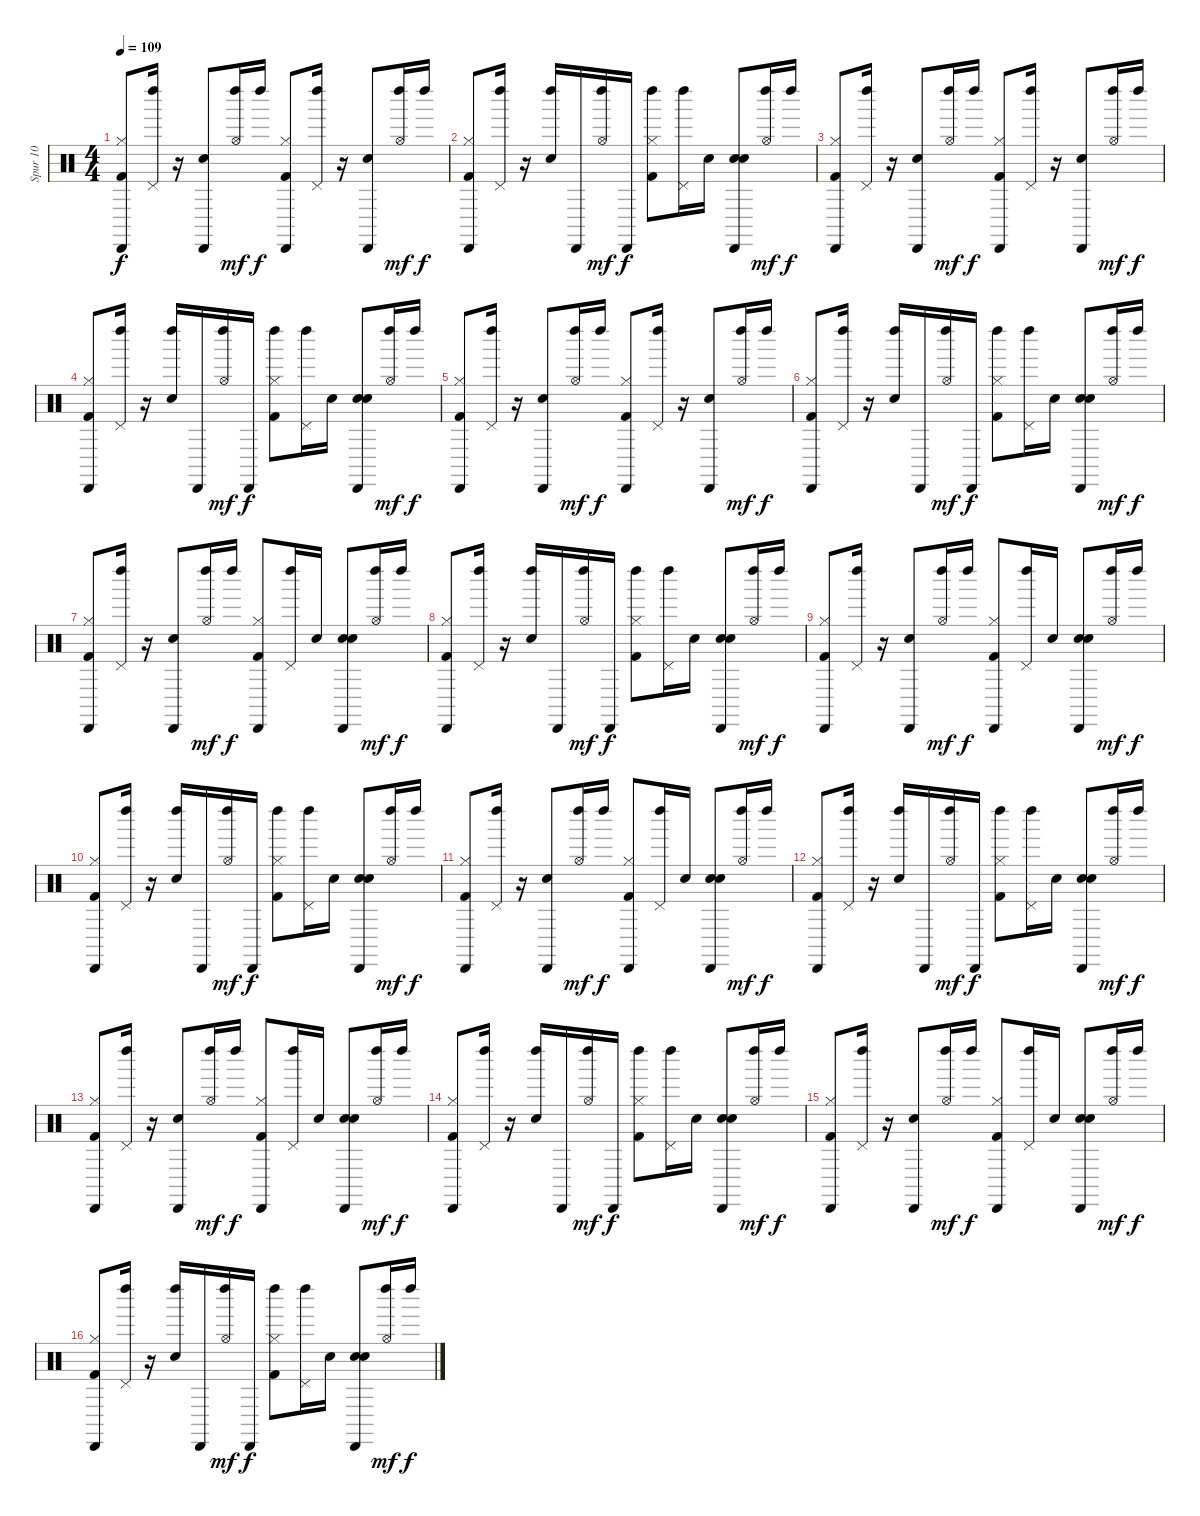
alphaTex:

\track ("Spur 10" "Spur 10") {instrument percussion}
\staff {score}
\articulation defaults
\ts (4 4)
\tempo 109
\clef neutral
\ks c
("Kick (hit) 2" "Hi-Hat (closed)" "Cabasa (hit)").8{dy f} ("Left Maraca (hit)" "Pedal Hi-Hat (hit)").16 r.16 ("Snare (hit) 2" "Cabasa (hit)").8 ("Left Maraca (hit)" "Hi-Hat (open)").16{dy mf} "Left Maraca (hit)".16{dy f} ("Kick (hit) 2" "Cabasa (hit)" "Hi-Hat (closed)").8 ("Pedal Hi-Hat (hit)" "Left Maraca (hit)").16 r.16 ("Snare (hit) 2" "Cabasa (hit)").8 ("Left Maraca (hit)" "Hi-Hat (open)").16{dy mf} "Left Maraca (hit)".16{dy f} |
("Kick (hit) 2" "Hi-Hat (closed)" "Cabasa (hit)").8 ("Pedal Hi-Hat (hit)" "Left Maraca (hit)").16 r.16 ("Snare (hit) 2" "Left Maraca (hit)").16 "Cabasa (hit)".16 ("Hi-Hat (open)" "Left Maraca (hit)").16{dy mf} "Cabasa (hit)".16{dy f} ("Kick (hit) 2" "Left Maraca (hit)" "Hi-Hat (closed)").8 ("Left Maraca (hit)" "Pedal Hi-Hat (hit)").16 "Electric Snare (hit)".16 ("Snare (hit) 2" "Electric Snare (hit)" "Cabasa (hit)").8 ("Left Maraca (hit)" "Hi-Hat (open)").16{dy mf} "Left Maraca (hit)".16{dy f} |
("Kick (hit) 2" "Hi-Hat (closed)" "Cabasa (hit)").8 ("Left Maraca (hit)" "Pedal Hi-Hat (hit)").16 r.16 ("Snare (hit) 2" "Cabasa (hit)").8 ("Left Maraca (hit)" "Hi-Hat (open)").16{dy mf} "Left Maraca (hit)".16{dy f} ("Kick (hit) 2" "Cabasa (hit)" "Hi-Hat (closed)").8 ("Pedal Hi-Hat (hit)" "Left Maraca (hit)").16 r.16 ("Snare (hit) 2" "Cabasa (hit)").8 ("Left Maraca (hit)" "Hi-Hat (open)").16{dy mf} "Left Maraca (hit)".16{dy f} |
("Kick (hit) 2" "Hi-Hat (closed)" "Cabasa (hit)").8 ("Pedal Hi-Hat (hit)" "Left Maraca (hit)").16 r.16 ("Snare (hit) 2" "Left Maraca (hit)").16 "Cabasa (hit)".16 ("Hi-Hat (open)" "Left Maraca (hit)").16{dy mf} "Cabasa (hit)".16{dy f} ("Kick (hit) 2" "Left Maraca (hit)" "Hi-Hat (closed)").8 ("Left Maraca (hit)" "Pedal Hi-Hat (hit)").16 "Electric Snare (hit)".16 ("Snare (hit) 2" "Electric Snare (hit)" "Cabasa (hit)").8 ("Left Maraca (hit)" "Hi-Hat (open)").16{dy mf} "Left Maraca (hit)".16{dy f} |
("Kick (hit) 2" "Hi-Hat (closed)" "Cabasa (hit)").8 ("Left Maraca (hit)" "Pedal Hi-Hat (hit)").16 r.16 ("Snare (hit) 2" "Cabasa (hit)").8 ("Left Maraca (hit)" "Hi-Hat (open)").16{dy mf} "Left Maraca (hit)".16{dy f} ("Kick (hit) 2" "Cabasa (hit)" "Hi-Hat (closed)").8 ("Pedal Hi-Hat (hit)" "Left Maraca (hit)").16 r.16 ("Snare (hit) 2" "Cabasa (hit)").8 ("Left Maraca (hit)" "Hi-Hat (open)").16{dy mf} "Left Maraca (hit)".16{dy f} |
("Kick (hit) 2" "Hi-Hat (closed)" "Cabasa (hit)").8 ("Pedal Hi-Hat (hit)" "Left Maraca (hit)").16 r.16 ("Snare (hit) 2" "Left Maraca (hit)").16 "Cabasa (hit)".16 ("Hi-Hat (open)" "Left Maraca (hit)").16{dy mf} "Cabasa (hit)".16{dy f} ("Kick (hit) 2" "Left Maraca (hit)" "Hi-Hat (closed)").8 ("Left Maraca (hit)" "Pedal Hi-Hat (hit)").16 "Electric Snare (hit)".16 ("Snare (hit) 2" "Electric Snare (hit)" "Cabasa (hit)").8 ("Left Maraca (hit)" "Hi-Hat (open)").16{dy mf} "Left Maraca (hit)".16{dy f} |
("Kick (hit) 2" "Hi-Hat (closed)" "Cabasa (hit)").8 ("Left Maraca (hit)" "Pedal Hi-Hat (hit)").16 r.16 ("Snare (hit) 2" "Cabasa (hit)").8 ("Left Maraca (hit)" "Hi-Hat (open)").16{dy mf} "Left Maraca (hit)".16{dy f} ("Kick (hit) 2" "Cabasa (hit)" "Hi-Hat (closed)").8 ("Pedal Hi-Hat (hit)" "Left Maraca (hit)").16 "Electric Snare (hit)".16 ("Electric Snare (hit)" "Snare (hit) 2" "Cabasa (hit)").8 ("Left Maraca (hit)" "Hi-Hat (open)").16{dy mf} "Left Maraca (hit)".16{dy f} |
("Kick (hit) 2" "Hi-Hat (closed)" "Cabasa (hit)").8 ("Pedal Hi-Hat (hit)" "Left Maraca (hit)").16 r.16 ("Snare (hit) 2" "Left Maraca (hit)").16 "Cabasa (hit)".16 ("Hi-Hat (open)" "Left Maraca (hit)").16{dy mf} "Cabasa (hit)".16{dy f} ("Kick (hit) 2" "Left Maraca (hit)" "Hi-Hat (closed)").8 ("Left Maraca (hit)" "Pedal Hi-Hat (hit)").16 "Electric Snare (hit)".16 ("Snare (hit) 2" "Electric Snare (hit)" "Cabasa (hit)").8 ("Left Maraca (hit)" "Hi-Hat (open)").16{dy mf} "Left Maraca (hit)".16{dy f} |
("Kick (hit) 2" "Hi-Hat (closed)" "Cabasa (hit)").8 ("Left Maraca (hit)" "Pedal Hi-Hat (hit)").16 r.16 ("Snare (hit) 2" "Cabasa (hit)").8 ("Left Maraca (hit)" "Hi-Hat (open)").16{dy mf} "Left Maraca (hit)".16{dy f} ("Kick (hit) 2" "Cabasa (hit)" "Hi-Hat (closed)").8 ("Pedal Hi-Hat (hit)" "Left Maraca (hit)").16 "Electric Snare (hit)".16 ("Electric Snare (hit)" "Snare (hit) 2" "Cabasa (hit)").8 ("Left Maraca (hit)" "Hi-Hat (open)").16{dy mf} "Left Maraca (hit)".16{dy f} |
("Kick (hit) 2" "Hi-Hat (closed)" "Cabasa (hit)").8 ("Pedal Hi-Hat (hit)" "Left Maraca (hit)").16 r.16 ("Snare (hit) 2" "Left Maraca (hit)").16 "Cabasa (hit)".16 ("Hi-Hat (open)" "Left Maraca (hit)").16{dy mf} "Cabasa (hit)".16{dy f} ("Kick (hit) 2" "Left Maraca (hit)" "Hi-Hat (closed)").8 ("Left Maraca (hit)" "Pedal Hi-Hat (hit)").16 "Electric Snare (hit)".16 ("Snare (hit) 2" "Electric Snare (hit)" "Cabasa (hit)").8 ("Left Maraca (hit)" "Hi-Hat (open)").16{dy mf} "Left Maraca (hit)".16{dy f} |
("Kick (hit) 2" "Hi-Hat (closed)" "Cabasa (hit)").8 ("Left Maraca (hit)" "Pedal Hi-Hat (hit)").16 r.16 ("Snare (hit) 2" "Cabasa (hit)").8 ("Left Maraca (hit)" "Hi-Hat (open)").16{dy mf} "Left Maraca (hit)".16{dy f} ("Kick (hit) 2" "Cabasa (hit)" "Hi-Hat (closed)").8 ("Pedal Hi-Hat (hit)" "Left Maraca (hit)").16 "Electric Snare (hit)".16 ("Snare (hit) 2" "Electric Snare (hit)" "Cabasa (hit)").8 ("Left Maraca (hit)" "Hi-Hat (open)").16{dy mf} "Left Maraca (hit)".16{dy f} |
("Kick (hit) 2" "Hi-Hat (closed)" "Cabasa (hit)").8 ("Pedal Hi-Hat (hit)" "Left Maraca (hit)").16 r.16 ("Snare (hit) 2" "Left Maraca (hit)").16 "Cabasa (hit)".16 ("Hi-Hat (open)" "Left Maraca (hit)").16{dy mf} "Cabasa (hit)".16{dy f} ("Kick (hit) 2" "Left Maraca (hit)" "Hi-Hat (closed)").8 ("Left Maraca (hit)" "Pedal Hi-Hat (hit)").16 "Electric Snare (hit)".16 ("Snare (hit) 2" "Electric Snare (hit)" "Cabasa (hit)").8 ("Left Maraca (hit)" "Hi-Hat (open)").16{dy mf} "Left Maraca (hit)".16{dy f} |
("Kick (hit) 2" "Hi-Hat (closed)" "Cabasa (hit)").8 ("Left Maraca (hit)" "Pedal Hi-Hat (hit)").16 r.16 ("Snare (hit) 2" "Cabasa (hit)").8 ("Left Maraca (hit)" "Hi-Hat (open)").16{dy mf} "Left Maraca (hit)".16{dy f} ("Kick (hit) 2" "Cabasa (hit)" "Hi-Hat (closed)").8 ("Pedal Hi-Hat (hit)" "Left Maraca (hit)").16 "Electric Snare (hit)".16 ("Electric Snare (hit)" "Snare (hit) 2" "Cabasa (hit)").8 ("Left Maraca (hit)" "Hi-Hat (open)").16{dy mf} "Left Maraca (hit)".16{dy f} |
("Kick (hit) 2" "Hi-Hat (closed)" "Cabasa (hit)").8 ("Pedal Hi-Hat (hit)" "Left Maraca (hit)").16 r.16 ("Snare (hit) 2" "Left Maraca (hit)").16 "Cabasa (hit)".16 ("Hi-Hat (open)" "Left Maraca (hit)").16{dy mf} "Cabasa (hit)".16{dy f} ("Kick (hit) 2" "Left Maraca (hit)" "Hi-Hat (closed)").8 ("Left Maraca (hit)" "Pedal Hi-Hat (hit)").16 "Electric Snare (hit)".16 ("Electric Snare (hit)" "Snare (hit) 2" "Cabasa (hit)").8 ("Left Maraca (hit)" "Hi-Hat (open)").16{dy mf} "Left Maraca (hit)".16{dy f} |
("Kick (hit) 2" "Hi-Hat (closed)" "Cabasa (hit)").8 ("Left Maraca (hit)" "Pedal Hi-Hat (hit)").16 r.16 ("Snare (hit) 2" "Cabasa (hit)").8 ("Left Maraca (hit)" "Hi-Hat (open)").16{dy mf} "Left Maraca (hit)".16{dy f} ("Kick (hit) 2" "Cabasa (hit)" "Hi-Hat (closed)").8 ("Pedal Hi-Hat (hit)" "Left Maraca (hit)").16 "Electric Snare (hit)".16 ("Snare (hit) 2" "Electric Snare (hit)" "Cabasa (hit)").8 ("Left Maraca (hit)" "Hi-Hat (open)").16{dy mf} "Left Maraca (hit)".16{dy f} |
("Kick (hit) 2" "Hi-Hat (closed)" "Cabasa (hit)").8 ("Pedal Hi-Hat (hit)" "Left Maraca (hit)").16 r.16 ("Snare (hit) 2" "Left Maraca (hit)").16 "Cabasa (hit)".16 ("Hi-Hat (open)" "Left Maraca (hit)").16{dy mf} "Cabasa (hit)".16{dy f} ("Kick (hit) 2" "Left Maraca (hit)" "Hi-Hat (closed)").8 ("Left Maraca (hit)" "Pedal Hi-Hat (hit)").16 "Electric Snare (hit)".16 ("Snare (hit) 2" "Electric Snare (hit)" "Cabasa (hit)").8 ("Left Maraca (hit)" "Hi-Hat (open)").16{dy mf} "Left Maraca (hit)".16{dy f}
